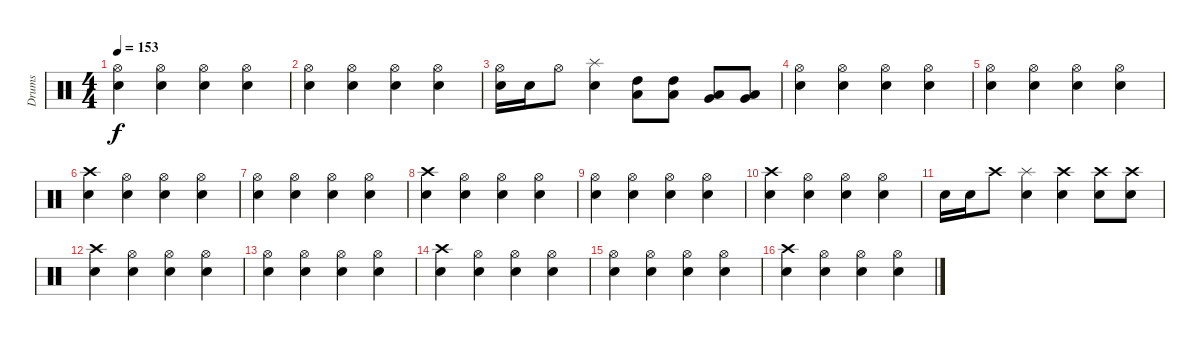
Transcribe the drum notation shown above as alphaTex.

\track ("Drums" "Drums") {instrument percussion}
\staff {score}
\articulation defaults
\ts (4 4)
\tempo 153
\clef neutral
\ks c
("Hi-Hat (open)" "Snare (hit) 2").4{dy f} ("Hi-Hat (open)" "Snare (hit) 2").4 ("Hi-Hat (open)" "Snare (hit) 2").4 ("Hi-Hat (open)" "Snare (hit) 2").4 |
("Hi-Hat (open)" "Snare (hit) 2").4 ("Hi-Hat (open)" "Snare (hit) 2").4 ("Hi-Hat (open)" "Snare (hit) 2").4 ("Hi-Hat (open)" "Snare (hit) 2").4 |
("Hi-Hat (open)" "Snare (hit) 2").16 "Snare (hit) 2".16 "Hi-Hat (open)".8 ("Splash (hit)" "Snare (hit) 2").4 ("High Tom (hit)" "Low Tom (hit)").8 ("High Tom (hit)" "Low Tom (hit)").8 ("Low Tom (hit)" "Very Low Tom (hit)").8 ("Low Tom (hit)" "Very Low Tom (hit)").8 |
("Hi-Hat (open)" "Snare (hit) 2").4 ("Hi-Hat (open)" "Snare (hit) 2").4 ("Hi-Hat (open)" "Snare (hit) 2").4 ("Hi-Hat (open)" "Snare (hit) 2").4 |
("Hi-Hat (open)" "Snare (hit) 2").4 ("Hi-Hat (open)" "Snare (hit) 2").4 ("Hi-Hat (open)" "Snare (hit) 2").4 ("Hi-Hat (open)" "Snare (hit) 2").4 |
("Crash high (hit)" "Snare (hit) 2").4 ("Hi-Hat (open)" "Snare (hit) 2").4 ("Hi-Hat (open)" "Snare (hit) 2").4 ("Hi-Hat (open)" "Snare (hit) 2").4 |
("Hi-Hat (open)" "Snare (hit) 2").4 ("Hi-Hat (open)" "Snare (hit) 2").4 ("Hi-Hat (open)" "Snare (hit) 2").4 ("Hi-Hat (open)" "Snare (hit) 2").4 |
("Crash high (hit)" "Snare (hit) 2").4 ("Hi-Hat (open)" "Snare (hit) 2").4 ("Hi-Hat (open)" "Snare (hit) 2").4 ("Hi-Hat (open)" "Snare (hit) 2").4 |
("Hi-Hat (open)" "Snare (hit) 2").4 ("Hi-Hat (open)" "Snare (hit) 2").4 ("Hi-Hat (open)" "Snare (hit) 2").4 ("Hi-Hat (open)" "Snare (hit) 2").4 |
("Crash high (hit)" "Snare (hit) 2").4 ("Hi-Hat (open)" "Snare (hit) 2").4 ("Hi-Hat (open)" "Snare (hit) 2").4 ("Hi-Hat (open)" "Snare (hit) 2").4 |
"Snare (hit) 2".16 "Snare (hit) 2".16 "Crash high (hit)".8 ("Splash (hit)" "Snare (hit) 2").4 ("Crash high (hit)" "Snare (hit) 2").4 ("Crash high (hit)" "Snare (hit) 2").8 ("Crash high (hit)" "Snare (hit) 2").8 |
("Crash high (hit)" "Snare (hit) 2").4 ("Hi-Hat (open)" "Snare (hit) 2").4 ("Hi-Hat (open)" "Snare (hit) 2").4 ("Hi-Hat (open)" "Snare (hit) 2").4 |
("Hi-Hat (open)" "Snare (hit) 2").4 ("Hi-Hat (open)" "Snare (hit) 2").4 ("Hi-Hat (open)" "Snare (hit) 2").4 ("Hi-Hat (open)" "Snare (hit) 2").4 |
("Crash high (hit)" "Snare (hit) 2").4 ("Hi-Hat (open)" "Snare (hit) 2").4 ("Hi-Hat (open)" "Snare (hit) 2").4 ("Hi-Hat (open)" "Snare (hit) 2").4 |
("Hi-Hat (open)" "Snare (hit) 2").4 ("Hi-Hat (open)" "Snare (hit) 2").4 ("Hi-Hat (open)" "Snare (hit) 2").4 ("Hi-Hat (open)" "Snare (hit) 2").4 |
("Crash high (hit)" "Snare (hit) 2").4 ("Hi-Hat (open)" "Snare (hit) 2").4 ("Hi-Hat (open)" "Snare (hit) 2").4 ("Hi-Hat (open)" "Snare (hit) 2").4
